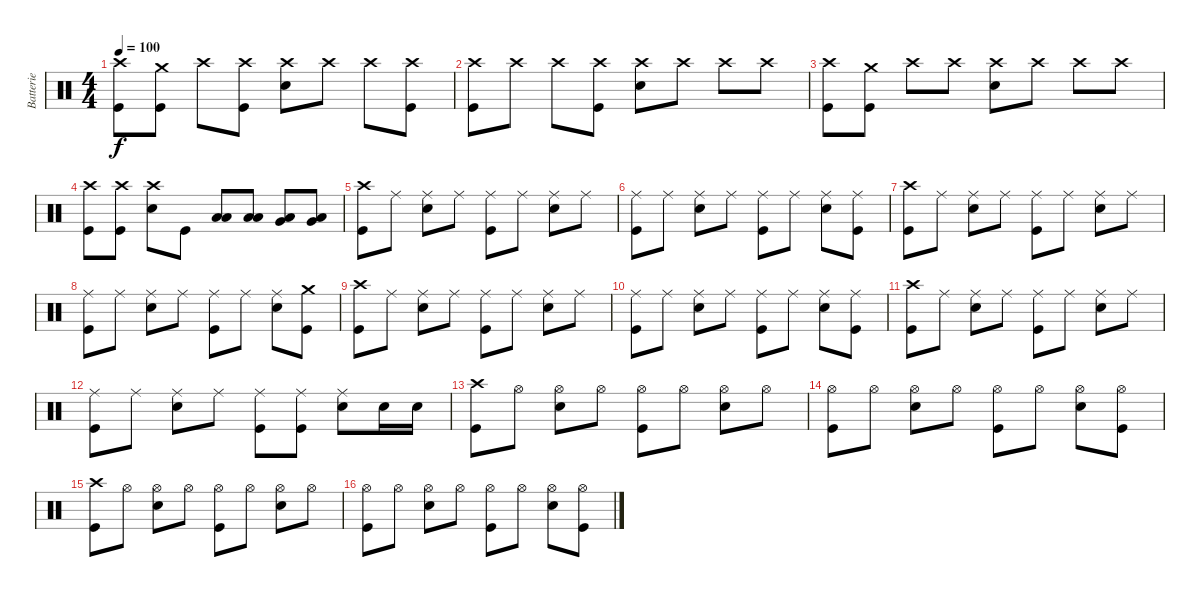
\track ("Batterie" "Batterie") {instrument percussion}
\staff {score}
\articulation defaults
\ts (4 4)
\tempo 100
\clef neutral
\ks c
("Crash high (hit)" "Kick (hit)").8{dy f} ("Crash medium (hit)" "Kick (hit)").8 "Crash high (hit)".8 ("Crash high (hit)" "Kick (hit)").8 ("Crash high (hit)" "Electric Snare (hit)").8 "Crash high (hit)".8 "Crash high (hit)".8 ("Crash high (hit)" "Kick (hit)").8 |
("Crash high (hit)" "Kick (hit)").8 "Crash high (hit)".8 "Crash high (hit)".8 ("Crash high (hit)" "Kick (hit)").8 ("Crash high (hit)" "Electric Snare (hit)").8 "Crash high (hit)".8 "Crash high (hit)".8 "Crash high (hit)".8 |
("Crash high (hit)" "Kick (hit)").8 ("Crash medium (hit)" "Kick (hit)").8 "Crash high (hit)".8 "Crash high (hit)".8 ("Crash high (hit)" "Electric Snare (hit)").8 "Crash high (hit)".8 "Crash high (hit)".8 "Crash high (hit)".8 |
("Crash high (hit)" "Kick (hit)").8 ("Crash high (hit)" "Kick (hit)").8 ("Crash high (hit)" "Electric Snare (hit)").8 "Kick (hit)".8 ("Low Tom (hit)" "Low Floor Tom (hit)").8 ("Low Tom (hit)" "Low Floor Tom (hit)").8 ("Very Low Tom (hit)" "Low Floor Tom (hit)").8 ("Very Low Tom (hit)" "Low Floor Tom (hit)").8 |
("Crash high (hit)" "Kick (hit)").8 "Ride (middle)".8 ("Ride (middle)" "Electric Snare (hit)").8 "Ride (middle)".8 ("Ride (middle)" "Kick (hit)").8 "Ride (middle)".8 ("Ride (middle)" "Electric Snare (hit)").8 "Ride (middle)".8 |
("Ride (middle)" "Kick (hit)").8 "Ride (middle)".8 ("Ride (middle)" "Electric Snare (hit)").8 "Ride (middle)".8 ("Ride (middle)" "Kick (hit)").8 "Ride (middle)".8 ("Ride (middle)" "Electric Snare (hit)").8 ("Ride (middle)" "Kick (hit)").8 |
("Crash high (hit)" "Kick (hit)").8 "Ride (middle)".8 ("Ride (middle)" "Electric Snare (hit)").8 "Ride (middle)".8 ("Ride (middle)" "Kick (hit)").8 "Ride (middle)".8 ("Ride (middle)" "Electric Snare (hit)").8 "Ride (middle)".8 |
("Ride (middle)" "Kick (hit)").8 "Ride (middle)".8 ("Ride (middle)" "Electric Snare (hit)").8 "Ride (middle)".8 ("Ride (middle)" "Kick (hit)").8 "Ride (middle)".8 ("Ride (middle)" "Electric Snare (hit)").8 ("Crash medium (hit)" "Kick (hit)").8 |
("Crash high (hit)" "Kick (hit)").8 "Ride (middle)".8 ("Ride (middle)" "Electric Snare (hit)").8 "Ride (middle)".8 ("Ride (middle)" "Kick (hit)").8 "Ride (middle)".8 ("Ride (middle)" "Electric Snare (hit)").8 "Ride (middle)".8 |
("Ride (middle)" "Kick (hit)").8 "Ride (middle)".8 ("Ride (middle)" "Electric Snare (hit)").8 "Ride (middle)".8 ("Ride (middle)" "Kick (hit)").8 "Ride (middle)".8 ("Ride (middle)" "Electric Snare (hit)").8 ("Ride (middle)" "Kick (hit)").8 |
("Crash high (hit)" "Kick (hit)").8 "Ride (middle)".8 ("Ride (middle)" "Electric Snare (hit)").8 "Ride (middle)".8 ("Ride (middle)" "Kick (hit)").8 "Ride (middle)".8 ("Ride (middle)" "Electric Snare (hit)").8 "Ride (middle)".8 |
("Ride (middle)" "Kick (hit)").8 "Ride (middle)".8 ("Ride (middle)" "Electric Snare (hit)").8 "Ride (middle)".8 ("Ride (middle)" "Kick (hit)").8 ("Ride (middle)" "Kick (hit)").8 ("Ride (middle)" "Electric Snare (hit)").8 "Electric Snare (hit)".16 "Electric Snare (hit)".16 |
("Crash high (hit)" "Kick (hit)").8 "Hi-Hat (open)".8 ("Hi-Hat (open)" "Electric Snare (hit)").8 "Hi-Hat (open)".8 ("Hi-Hat (open)" "Kick (hit)").8 "Hi-Hat (open)".8 ("Hi-Hat (open)" "Electric Snare (hit)").8 "Hi-Hat (open)".8 |
("Hi-Hat (open)" "Kick (hit)").8 "Hi-Hat (open)".8 ("Hi-Hat (open)" "Electric Snare (hit)").8 "Hi-Hat (open)".8 ("Hi-Hat (open)" "Kick (hit)").8 "Hi-Hat (open)".8 ("Hi-Hat (open)" "Electric Snare (hit)").8 ("Hi-Hat (open)" "Kick (hit)").8 |
("Crash high (hit)" "Kick (hit)").8 "Hi-Hat (open)".8 ("Hi-Hat (open)" "Electric Snare (hit)").8 "Hi-Hat (open)".8 ("Hi-Hat (open)" "Kick (hit)").8 "Hi-Hat (open)".8 ("Hi-Hat (open)" "Electric Snare (hit)").8 "Hi-Hat (open)".8 |
("Hi-Hat (open)" "Kick (hit)").8 "Hi-Hat (open)".8 ("Hi-Hat (open)" "Electric Snare (hit)").8 "Hi-Hat (open)".8 ("Hi-Hat (open)" "Kick (hit)").8 "Hi-Hat (open)".8 ("Hi-Hat (open)" "Electric Snare (hit)").8 ("Hi-Hat (open)" "Kick (hit)").8
